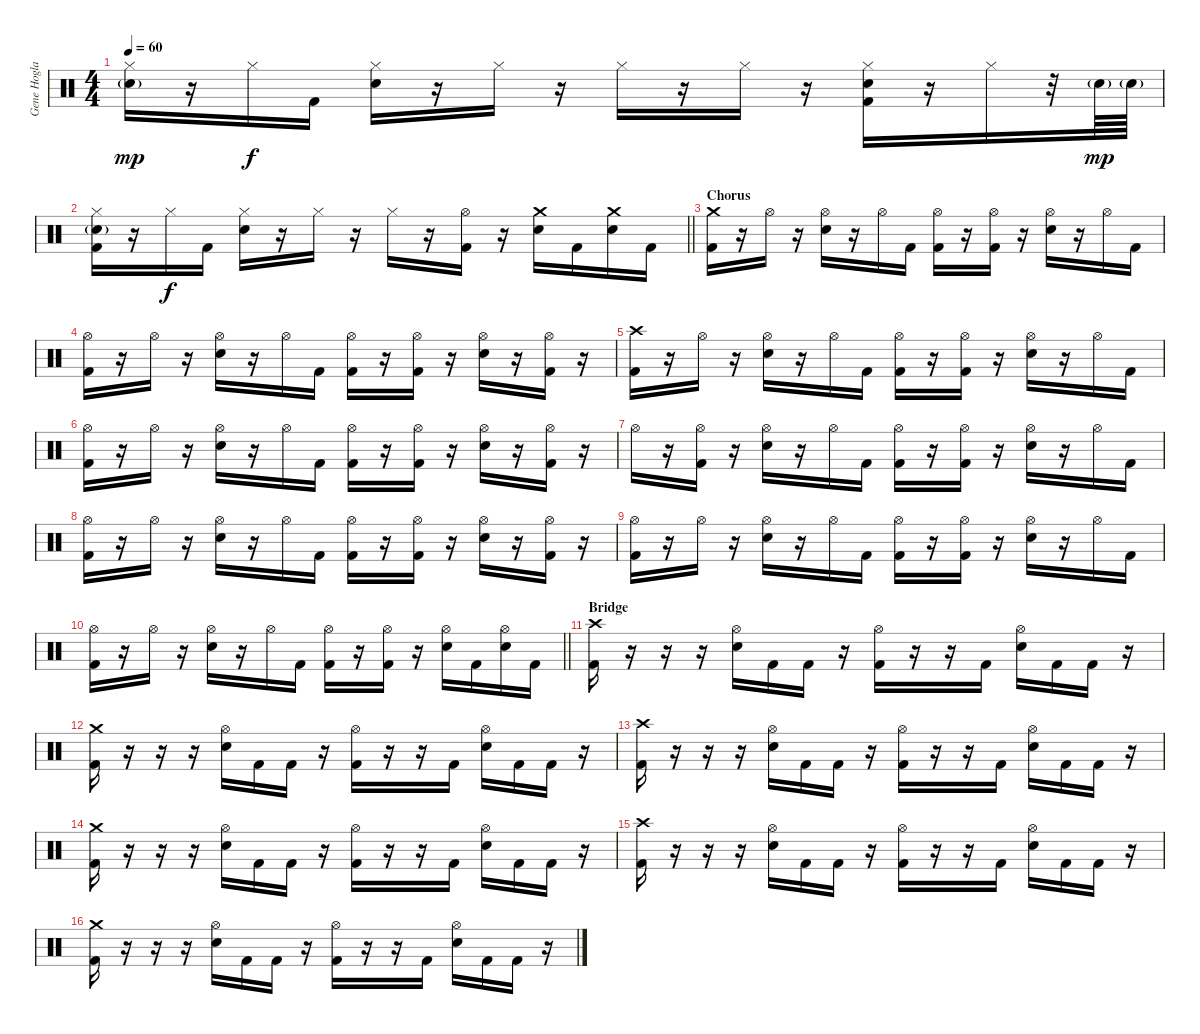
\track ("Gene Hoglan" "Gene Hogla") {instrument percussion}
\staff {score}
\articulation defaults
\ts (4 4)
\tempo 60
\clef neutral
\ks c
("Hi-Hat (closed)" "Snare (hit) 2"{g}).16{dy mp} r.16 "Hi-Hat (closed)".16{dy f} "Kick (hit) 2".16 ("Hi-Hat (closed)" "Snare (hit) 2").16 r.16 "Hi-Hat (closed)".16 r.16 "Hi-Hat (closed)".16 r.16 "Hi-Hat (closed)".16 r.16 ("Hi-Hat (closed)" "Snare (hit) 2" "Kick (hit) 2").16 r.16 "Hi-Hat (closed)".16 r.32 "Snare (hit) 2"{g}.64{dy mp} "Snare (hit) 2"{g}.64 |
\barLineRight lightlight
("Hi-Hat (closed)" "Snare (hit) 2"{g} "Kick (hit) 2").16 r.16 "Hi-Hat (closed)".16{dy f} "Kick (hit) 2".16 ("Hi-Hat (closed)" "Snare (hit) 2").16 r.16 "Hi-Hat (closed)".16 r.16 "Hi-Hat (closed)".16 r.16 ("Hi-Hat (open)" "Kick (hit) 2").16 r.16 ("Crash medium (hit)" "Snare (hit) 2").16 "Kick (hit) 2".16 ("Crash medium (hit)" "Snare (hit) 2").16 "Kick (hit) 2".16 |
\section ("" "Chorus")
("Crash medium (hit)" "Kick (hit) 2").16 r.16 "Hi-Hat (open)".16 r.16 ("Hi-Hat (open)" "Snare (hit) 2").16 r.16 "Hi-Hat (open)".16 "Kick (hit) 2".16 ("Hi-Hat (open)" "Kick (hit) 2").16 r.16 ("Hi-Hat (open)" "Kick (hit) 2").16 r.16 ("Hi-Hat (open)" "Snare (hit) 2").16 r.16 "Hi-Hat (open)".16 "Kick (hit) 2".16 |
("Hi-Hat (open)" "Kick (hit) 2").16 r.16 "Hi-Hat (open)".16 r.16 ("Hi-Hat (open)" "Snare (hit) 2").16 r.16 "Hi-Hat (open)".16 "Kick (hit) 2".16 ("Hi-Hat (open)" "Kick (hit) 2").16 r.16 ("Hi-Hat (open)" "Kick (hit) 2").16 r.16 ("Hi-Hat (open)" "Snare (hit) 2").16 r.16 ("Hi-Hat (open)" "Kick (hit) 2").16 r.16 |
("Crash high (hit)" "Kick (hit) 2").16 r.16 "Hi-Hat (open)".16 r.16 ("Hi-Hat (open)" "Snare (hit) 2").16 r.16 "Hi-Hat (open)".16 "Kick (hit) 2".16 ("Hi-Hat (open)" "Kick (hit) 2").16 r.16 ("Hi-Hat (open)" "Kick (hit) 2").16 r.16 ("Hi-Hat (open)" "Snare (hit) 2").16 r.16 "Hi-Hat (open)".16 "Kick (hit) 2".16 |
("Hi-Hat (open)" "Kick (hit) 2").16 r.16 "Hi-Hat (open)".16 r.16 ("Hi-Hat (open)" "Snare (hit) 2").16 r.16 "Hi-Hat (open)".16 "Kick (hit) 2".16 ("Hi-Hat (open)" "Kick (hit) 2").16 r.16 ("Hi-Hat (open)" "Kick (hit) 2").16 r.16 ("Hi-Hat (open)" "Snare (hit) 2").16 r.16 ("Hi-Hat (open)" "Kick (hit) 2").16 r.16 |
"Hi-Hat (open)".16 r.16 ("Hi-Hat (open)" "Kick (hit) 2").16 r.16 ("Hi-Hat (open)" "Snare (hit) 2").16 r.16 "Hi-Hat (open)".16 "Kick (hit) 2".16 ("Hi-Hat (open)" "Kick (hit) 2").16 r.16 ("Hi-Hat (open)" "Kick (hit) 2").16 r.16 ("Hi-Hat (open)" "Snare (hit) 2").16 r.16 "Hi-Hat (open)".16 "Kick (hit) 2".16 |
("Hi-Hat (open)" "Kick (hit) 2").16 r.16 "Hi-Hat (open)".16 r.16 ("Hi-Hat (open)" "Snare (hit) 2").16 r.16 "Hi-Hat (open)".16 "Kick (hit) 2".16 ("Hi-Hat (open)" "Kick (hit) 2").16 r.16 ("Hi-Hat (open)" "Kick (hit) 2").16 r.16 ("Hi-Hat (open)" "Snare (hit) 2").16 r.16 ("Hi-Hat (open)" "Kick (hit) 2").16 r.16 |
("Hi-Hat (open)" "Kick (hit) 2").16 r.16 "Hi-Hat (open)".16 r.16 ("Hi-Hat (open)" "Snare (hit) 2").16 r.16 "Hi-Hat (open)".16 "Kick (hit) 2".16 ("Hi-Hat (open)" "Kick (hit) 2").16 r.16 ("Hi-Hat (open)" "Kick (hit) 2").16 r.16 ("Hi-Hat (open)" "Snare (hit) 2").16 r.16 "Hi-Hat (open)".16 "Kick (hit) 2".16 |
\barLineRight lightlight
("Hi-Hat (open)" "Kick (hit) 2").16 r.16 "Hi-Hat (open)".16 r.16 ("Hi-Hat (open)" "Snare (hit) 2").16 r.16 "Hi-Hat (open)".16 "Kick (hit) 2".16 ("Hi-Hat (open)" "Kick (hit) 2").16 r.16 ("Hi-Hat (open)" "Kick (hit) 2").16 r.16 ("Hi-Hat (open)" "Snare (hit) 2").16 "Kick (hit) 2".16 ("Hi-Hat (open)" "Snare (hit) 2").16 "Kick (hit) 2".16 |
\section ("" "Bridge")
("Crash high (hit)" "Kick (hit) 2").16 r.16 r.16 r.16 ("Hi-Hat (open)" "Snare (hit) 2").16 "Kick (hit) 2".16 "Kick (hit) 2".16 r.16 ("Hi-Hat (open)" "Kick (hit) 2").16 r.16 r.16 "Kick (hit) 2".16 ("Hi-Hat (open)" "Snare (hit) 2").16 "Kick (hit) 2".16 "Kick (hit) 2".16 r.16 |
("Crash medium (hit)" "Kick (hit) 2").16 r.16 r.16 r.16 ("Hi-Hat (open)" "Snare (hit) 2").16 "Kick (hit) 2".16 "Kick (hit) 2".16 r.16 ("Hi-Hat (open)" "Kick (hit) 2").16 r.16 r.16 "Kick (hit) 2".16 ("Hi-Hat (open)" "Snare (hit) 2").16 "Kick (hit) 2".16 "Kick (hit) 2".16 r.16 |
("Crash high (hit)" "Kick (hit) 2").16 r.16 r.16 r.16 ("Hi-Hat (open)" "Snare (hit) 2").16 "Kick (hit) 2".16 "Kick (hit) 2".16 r.16 ("Hi-Hat (open)" "Kick (hit) 2").16 r.16 r.16 "Kick (hit) 2".16 ("Hi-Hat (open)" "Snare (hit) 2").16 "Kick (hit) 2".16 "Kick (hit) 2".16 r.16 |
("Crash medium (hit)" "Kick (hit) 2").16 r.16 r.16 r.16 ("Hi-Hat (open)" "Snare (hit) 2").16 "Kick (hit) 2".16 "Kick (hit) 2".16 r.16 ("Hi-Hat (open)" "Kick (hit) 2").16 r.16 r.16 "Kick (hit) 2".16 ("Hi-Hat (open)" "Snare (hit) 2").16 "Kick (hit) 2".16 "Kick (hit) 2".16 r.16 |
("Crash high (hit)" "Kick (hit) 2").16 r.16 r.16 r.16 ("Hi-Hat (open)" "Snare (hit) 2").16 "Kick (hit) 2".16 "Kick (hit) 2".16 r.16 ("Hi-Hat (open)" "Kick (hit) 2").16 r.16 r.16 "Kick (hit) 2".16 ("Hi-Hat (open)" "Snare (hit) 2").16 "Kick (hit) 2".16 "Kick (hit) 2".16 r.16 |
("Crash medium (hit)" "Kick (hit) 2").16 r.16 r.16 r.16 ("Hi-Hat (open)" "Snare (hit) 2").16 "Kick (hit) 2".16 "Kick (hit) 2".16 r.16 ("Hi-Hat (open)" "Kick (hit) 2").16 r.16 r.16 "Kick (hit) 2".16 ("Hi-Hat (open)" "Snare (hit) 2").16 "Kick (hit) 2".16 "Kick (hit) 2".16 r.16
